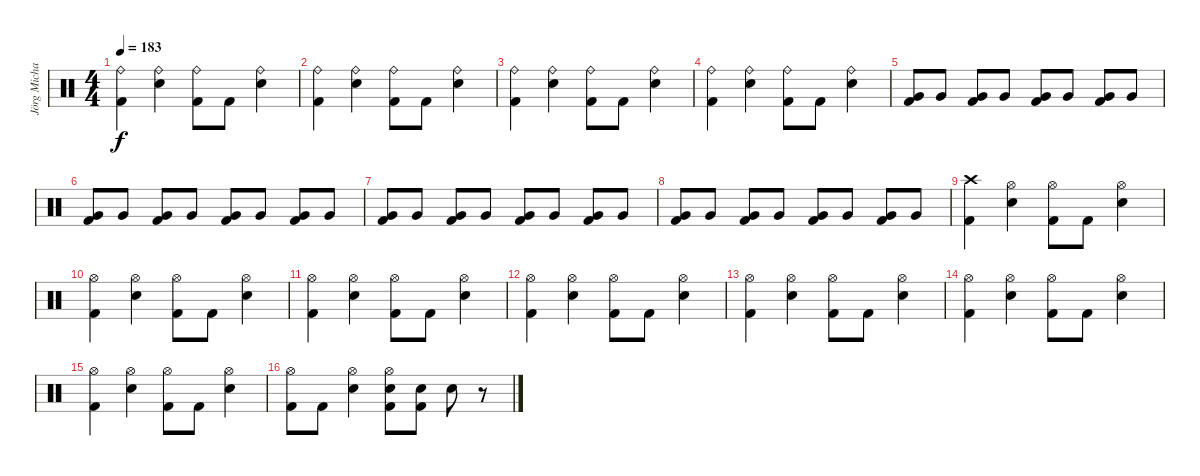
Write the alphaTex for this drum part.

\track ("Jörg Michael" "Jörg Micha") {instrument percussion}
\staff {score}
\articulation defaults
\ts (4 4)
\tempo 183
\clef neutral
\ks c
("Kick (hit) 2" "Ride (bell)").4{dy f} ("Snare (hit) 2" "Ride (bell)").4 ("Kick (hit) 2" "Ride (bell)").8 "Kick (hit) 2".8 ("Snare (hit) 2" "Ride (bell)").4 |
("Kick (hit) 2" "Ride (bell)").4 ("Snare (hit) 2" "Ride (bell)").4 ("Kick (hit) 2" "Ride (bell)").8 "Kick (hit) 2".8 ("Snare (hit) 2" "Ride (bell)").4 |
("Kick (hit) 2" "Ride (bell)").4 ("Snare (hit) 2" "Ride (bell)").4 ("Kick (hit) 2" "Ride (bell)").8 "Kick (hit) 2".8 ("Snare (hit) 2" "Ride (bell)").4 |
("Kick (hit) 2" "Ride (bell)").4 ("Snare (hit) 2" "Ride (bell)").4 ("Kick (hit) 2" "Ride (bell)").8 "Kick (hit) 2".8 ("Snare (hit) 2" "Ride (bell)").4 |
("Very Low Tom (hit)" "Kick (hit) 2").8 "Very Low Tom (hit)".8 ("Very Low Tom (hit)" "Kick (hit) 2").8 "Very Low Tom (hit)".8 ("Very Low Tom (hit)" "Kick (hit) 2").8 "Very Low Tom (hit)".8 ("Very Low Tom (hit)" "Kick (hit) 2").8 "Very Low Tom (hit)".8 |
("Very Low Tom (hit)" "Kick (hit) 2").8 "Very Low Tom (hit)".8 ("Very Low Tom (hit)" "Kick (hit) 2").8 "Very Low Tom (hit)".8 ("Very Low Tom (hit)" "Kick (hit) 2").8 "Very Low Tom (hit)".8 ("Very Low Tom (hit)" "Kick (hit) 2").8 "Very Low Tom (hit)".8 |
("Very Low Tom (hit)" "Kick (hit) 2").8 "Very Low Tom (hit)".8 ("Very Low Tom (hit)" "Kick (hit) 2").8 "Very Low Tom (hit)".8 ("Very Low Tom (hit)" "Kick (hit) 2").8 "Very Low Tom (hit)".8 ("Very Low Tom (hit)" "Kick (hit) 2").8 "Very Low Tom (hit)".8 |
("Very Low Tom (hit)" "Kick (hit) 2").8 "Very Low Tom (hit)".8 ("Very Low Tom (hit)" "Kick (hit) 2").8 "Very Low Tom (hit)".8 ("Very Low Tom (hit)" "Kick (hit) 2").8 "Very Low Tom (hit)".8 ("Very Low Tom (hit)" "Kick (hit) 2").8 "Very Low Tom (hit)".8 |
("Kick (hit) 2" "Crash high (hit)").4 ("Snare (hit) 2" "Hi-Hat (open)").4 ("Kick (hit) 2" "Hi-Hat (open)").8 "Kick (hit) 2".8 ("Snare (hit) 2" "Hi-Hat (open)").4 |
("Kick (hit) 2" "Hi-Hat (open)").4 ("Snare (hit) 2" "Hi-Hat (open)").4 ("Kick (hit) 2" "Hi-Hat (open)").8 "Kick (hit) 2".8 ("Snare (hit) 2" "Hi-Hat (open)").4 |
("Kick (hit) 2" "Hi-Hat (open)").4 ("Snare (hit) 2" "Hi-Hat (open)").4 ("Kick (hit) 2" "Hi-Hat (open)").8 "Kick (hit) 2".8 ("Snare (hit) 2" "Hi-Hat (open)").4 |
("Kick (hit) 2" "Hi-Hat (open)").4 ("Snare (hit) 2" "Hi-Hat (open)").4 ("Kick (hit) 2" "Hi-Hat (open)").8 "Kick (hit) 2".8 ("Snare (hit) 2" "Hi-Hat (open)").4 |
("Kick (hit) 2" "Hi-Hat (open)").4 ("Snare (hit) 2" "Hi-Hat (open)").4 ("Kick (hit) 2" "Hi-Hat (open)").8 "Kick (hit) 2".8 ("Snare (hit) 2" "Hi-Hat (open)").4 |
("Kick (hit) 2" "Hi-Hat (open)").4 ("Snare (hit) 2" "Hi-Hat (open)").4 ("Kick (hit) 2" "Hi-Hat (open)").8 "Kick (hit) 2".8 ("Snare (hit) 2" "Hi-Hat (open)").4 |
("Kick (hit) 2" "Hi-Hat (open)").4 ("Snare (hit) 2" "Hi-Hat (open)").4 ("Kick (hit) 2" "Hi-Hat (open)").8 "Kick (hit) 2".8 ("Snare (hit) 2" "Hi-Hat (open)").4 |
("Kick (hit) 2" "Hi-Hat (open)").8 "Kick (hit) 2".8 ("Snare (hit) 2" "Hi-Hat (open)").4 ("Snare (hit) 2" "Kick (hit) 2" "Hi-Hat (open)").8 ("Snare (hit) 2" "Kick (hit) 2").8 "Snare (hit) 2".8 r.8
